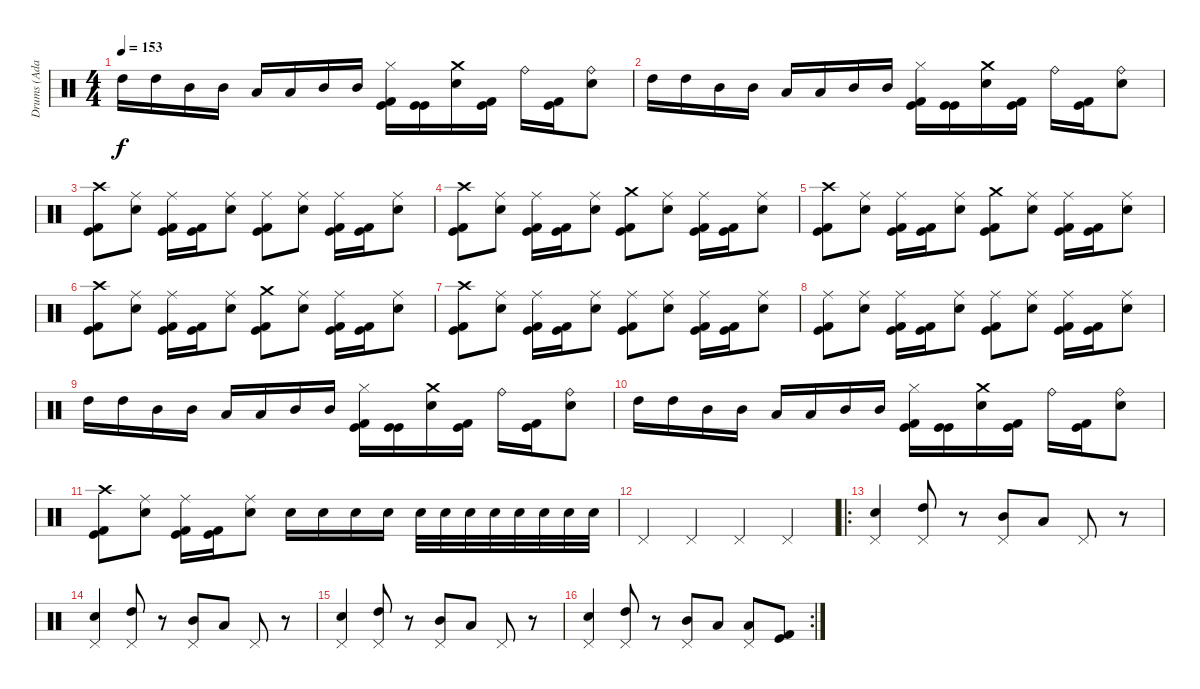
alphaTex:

\track ("Drums (Adam)" "Drums (Ada") {instrument percussion}
\staff {score}
\articulation defaults
\ts (4 4)
\tempo 153
\clef neutral
\ks c "High Tom (hit)".16{dy f} "High Tom (hit)".16 "Mid Tom (hit)".16 "Mid Tom (hit)".16 "Low Tom (hit)".16 "Low Tom (hit)".16 "Mid Tom (hit)".16 "Mid Tom (hit)".16
("Hi-Hat (closed)" "Kick (hit)" "Kick (hit) 2").16 ("Kick (hit)" "Kick (hit)").16 ("Crash medium (hit)" "Snare (hit) 2").16 ("Kick (hit)" "Kick (hit) 2").16 "Ride (bell)".16 ("Kick (hit)" "Kick (hit) 2").16 ("Ride (bell)" "Snare (hit) 2").8 |
"High Tom (hit)".16 "High Tom (hit)".16 "Mid Tom (hit)".16 "Mid Tom (hit)".16 "Low Tom (hit)".16 "Low Tom (hit)".16 "Mid Tom (hit)".16 "Mid Tom (hit)".16 ("Hi-Hat (closed)" "Kick (hit)" "Kick (hit) 2").16 ("Kick (hit)" "Kick (hit)").16 ("Crash medium (hit)" "Snare (hit) 2").16 ("Kick (hit)" "Kick (hit) 2").16 "Ride (bell)".16 ("Kick (hit)" "Kick (hit) 2").16 ("Ride (bell)" "Snare (hit) 2").8 |
("Crash high (hit)" "Kick (hit)" "Kick (hit) 2").8 ("Ride (middle)" "Snare (hit) 2").8 ("Ride (middle)" "Kick (hit)" "Kick (hit) 2").16 ("Kick (hit)" "Kick (hit) 2").16 ("Ride (middle)" "Snare (hit) 2").8 ("Ride (middle)" "Kick (hit)" "Kick (hit) 2").8 ("Ride (middle)" "Snare (hit) 2").8 ("Ride (middle)" "Kick (hit)" "Kick (hit) 2").16 ("Kick (hit)" "Kick (hit) 2").16 ("Ride (middle)" "Snare (hit) 2").8 |
("Crash high (hit)" "Kick (hit)" "Kick (hit) 2").8 ("Ride (middle)" "Snare (hit) 2").8 ("Ride (middle)" "Kick (hit)" "Kick (hit) 2").16 ("Kick (hit)" "Kick (hit) 2").16 ("Ride (middle)" "Snare (hit) 2").8 ("Crash medium (hit)" "Kick (hit)" "Kick (hit) 2").8 ("Ride (middle)" "Snare (hit) 2").8 ("Ride (middle)" "Kick (hit)" "Kick (hit) 2").16 ("Kick (hit)" "Kick (hit) 2").16 ("Ride (middle)" "Snare (hit) 2").8 |
("Crash high (hit)" "Kick (hit)" "Kick (hit) 2").8 ("Ride (middle)" "Snare (hit) 2").8 ("Ride (middle)" "Kick (hit)" "Kick (hit) 2").16 ("Kick (hit)" "Kick (hit) 2").16 ("Ride (middle)" "Snare (hit) 2").8 ("Crash medium (hit)" "Kick (hit)" "Kick (hit) 2").8 ("Ride (middle)" "Snare (hit) 2").8 ("Ride (middle)" "Kick (hit)" "Kick (hit) 2").16 ("Kick (hit)" "Kick (hit) 2").16 ("Ride (middle)" "Snare (hit) 2").8 |
("Crash high (hit)" "Kick (hit)" "Kick (hit) 2").8 ("Ride (middle)" "Snare (hit) 2").8 ("Ride (middle)" "Kick (hit)" "Kick (hit) 2").16 ("Kick (hit)" "Kick (hit) 2").16 ("Ride (middle)" "Snare (hit) 2").8 ("Crash medium (hit)" "Kick (hit)" "Kick (hit) 2").8 ("Ride (middle)" "Snare (hit) 2").8 ("Ride (middle)" "Kick (hit)" "Kick (hit) 2").16 ("Kick (hit)" "Kick (hit) 2").16 ("Ride (middle)" "Snare (hit) 2").8 |
("Crash high (hit)" "Kick (hit)" "Kick (hit) 2").8 ("Ride (middle)" "Snare (hit) 2").8 ("Ride (middle)" "Kick (hit)" "Kick (hit) 2").16 ("Kick (hit)" "Kick (hit) 2").16 ("Ride (middle)" "Snare (hit) 2").8 ("Ride (middle)" "Kick (hit)" "Kick (hit) 2").8 ("Ride (middle)" "Snare (hit) 2").8 ("Ride (middle)" "Kick (hit)" "Kick (hit) 2").16 ("Kick (hit)" "Kick (hit) 2").16 ("Ride (middle)" "Snare (hit) 2").8 |
("Ride (middle)" "Kick (hit)" "Kick (hit) 2").8 ("Ride (middle)" "Snare (hit) 2").8 ("Ride (middle)" "Kick (hit)" "Kick (hit) 2").16 ("Kick (hit)" "Kick (hit) 2").16 ("Ride (middle)" "Snare (hit) 2").8 ("Ride (middle)" "Kick (hit)" "Kick (hit) 2").8 ("Ride (middle)" "Snare (hit) 2").8 ("Ride (middle)" "Kick (hit)" "Kick (hit) 2").16 ("Kick (hit)" "Kick (hit) 2").16 ("Ride (middle)" "Snare (hit) 2").8 |
"High Tom (hit)".16 "High Tom (hit)".16 "Mid Tom (hit)".16 "Mid Tom (hit)".16 "Low Tom (hit)".16 "Low Tom (hit)".16 "Mid Tom (hit)".16 "Mid Tom (hit)".16 ("Hi-Hat (closed)" "Kick (hit)" "Kick (hit) 2").16 ("Kick (hit)" "Kick (hit)").16 ("Crash medium (hit)" "Snare (hit) 2").16 ("Kick (hit)" "Kick (hit) 2").16 "Ride (bell)".16 ("Kick (hit)" "Kick (hit) 2").16 ("Ride (bell)" "Snare (hit) 2").8 |
"High Tom (hit)".16 "High Tom (hit)".16 "Mid Tom (hit)".16 "Mid Tom (hit)".16 "Low Tom (hit)".16 "Low Tom (hit)".16 "Mid Tom (hit)".16 "Mid Tom (hit)".16 ("Hi-Hat (closed)" "Kick (hit)" "Kick (hit) 2").16 ("Kick (hit)" "Kick (hit)").16 ("Crash medium (hit)" "Snare (hit) 2").16 ("Kick (hit)" "Kick (hit) 2").16 "Ride (bell)".16 ("Kick (hit)" "Kick (hit) 2").16 ("Ride (bell)" "Snare (hit) 2").8 |
("Crash high (hit)" "Kick (hit)" "Kick (hit) 2").8 ("Ride (middle)" "Snare (hit) 2").8 ("Ride (middle)" "Kick (hit)" "Kick (hit) 2").16 ("Kick (hit)" "Kick (hit) 2").16 ("Ride (middle)" "Snare (hit) 2").8 "Snare (hit) 2".16 "Snare (hit) 2".16 "Snare (hit) 2".16 "Snare (hit) 2".16 "Snare (hit) 2".32 "Snare (hit) 2".32 "Snare (hit) 2".32 "Snare (hit) 2".32 "Snare (hit) 2".32 "Snare (hit) 2".32 "Snare (hit) 2".32 "Snare (hit) 2".32 |
"Pedal Hi-Hat (hit)".4 "Pedal Hi-Hat (hit)".4 "Pedal Hi-Hat (hit)".4 "Pedal Hi-Hat (hit)".4 |
\ro
("Pedal Hi-Hat (hit)" "Snare (hit) 2").4 ("Pedal Hi-Hat (hit)" "High Tom (hit)").8 r.8 ("Pedal Hi-Hat (hit)" "Mid Tom (hit)").8 "Low Tom (hit)".8 "Pedal Hi-Hat (hit)".8 r.8 |
("Pedal Hi-Hat (hit)" "Snare (hit) 2").4 ("Pedal Hi-Hat (hit)" "High Tom (hit)").8 r.8 ("Pedal Hi-Hat (hit)" "Mid Tom (hit)").8 "Low Tom (hit)".8 "Pedal Hi-Hat (hit)".8 r.8 |
("Pedal Hi-Hat (hit)" "Snare (hit) 2").4 ("Pedal Hi-Hat (hit)" "High Tom (hit)").8 r.8 ("Pedal Hi-Hat (hit)" "Mid Tom (hit)").8 "Low Tom (hit)".8 "Pedal Hi-Hat (hit)".8 r.8 |
\rc 2
("Pedal Hi-Hat (hit)" "Snare (hit) 2").4 ("Pedal Hi-Hat (hit)" "High Tom (hit)").8 r.8 ("Pedal Hi-Hat (hit)" "Mid Tom (hit)").8 "Low Tom (hit)".8 ("Pedal Hi-Hat (hit)" "Low Tom (hit)").8 ("Kick (hit)" "Kick (hit) 2").8
